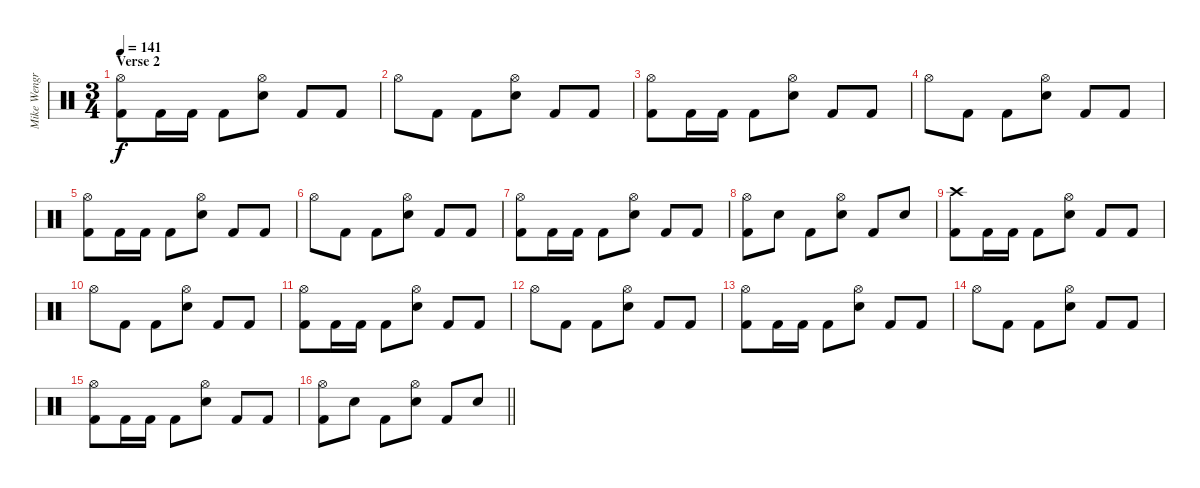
\track ("Mike Wengren (Drums)" "Mike Wengr") {instrument percussion}
\staff {score}
\articulation defaults
\ts (3 4)
\section ("" "Verse 2")
\tempo 141
\clef neutral
\ks c
("Hi-Hat (open)" "Kick (hit) 2").8{dy f} "Kick (hit) 2".16 "Kick (hit) 2".16 "Kick (hit) 2".8 ("Hi-Hat (open)" "Electric Snare (hit)").8 "Kick (hit) 2".8 "Kick (hit) 2".8 |
"Hi-Hat (open)".8 "Kick (hit) 2".8 "Kick (hit) 2".8 ("Hi-Hat (open)" "Electric Snare (hit)").8 "Kick (hit) 2".8 "Kick (hit) 2".8 |
("Hi-Hat (open)" "Kick (hit) 2").8 "Kick (hit) 2".16 "Kick (hit) 2".16 "Kick (hit) 2".8 ("Hi-Hat (open)" "Electric Snare (hit)").8 "Kick (hit) 2".8 "Kick (hit) 2".8 |
"Hi-Hat (open)".8 "Kick (hit) 2".8 "Kick (hit) 2".8 ("Hi-Hat (open)" "Electric Snare (hit)").8 "Kick (hit) 2".8 "Kick (hit) 2".8 |
("Hi-Hat (open)" "Kick (hit) 2").8 "Kick (hit) 2".16 "Kick (hit) 2".16 "Kick (hit) 2".8 ("Hi-Hat (open)" "Electric Snare (hit)").8 "Kick (hit) 2".8 "Kick (hit) 2".8 |
"Hi-Hat (open)".8 "Kick (hit) 2".8 "Kick (hit) 2".8 ("Hi-Hat (open)" "Electric Snare (hit)").8 "Kick (hit) 2".8 "Kick (hit) 2".8 |
("Hi-Hat (open)" "Kick (hit) 2").8 "Kick (hit) 2".16 "Kick (hit) 2".16 "Kick (hit) 2".8 ("Hi-Hat (open)" "Electric Snare (hit)").8 "Kick (hit) 2".8 "Kick (hit) 2".8 |
("Hi-Hat (open)" "Kick (hit) 2").8 "Electric Snare (hit)".8 "Kick (hit) 2".8 ("Hi-Hat (open)" "Electric Snare (hit)").8 "Kick (hit) 2".8 "Electric Snare (hit)".8 |
("Crash high (hit)" "Kick (hit) 2").8 "Kick (hit) 2".16 "Kick (hit) 2".16 "Kick (hit) 2".8 ("Hi-Hat (open)" "Electric Snare (hit)").8 "Kick (hit) 2".8 "Kick (hit) 2".8 |
"Hi-Hat (open)".8 "Kick (hit) 2".8 "Kick (hit) 2".8 ("Hi-Hat (open)" "Electric Snare (hit)").8 "Kick (hit) 2".8 "Kick (hit) 2".8 |
("Hi-Hat (open)" "Kick (hit) 2").8 "Kick (hit) 2".16 "Kick (hit) 2".16 "Kick (hit) 2".8 ("Hi-Hat (open)" "Electric Snare (hit)").8 "Kick (hit) 2".8 "Kick (hit) 2".8 |
"Hi-Hat (open)".8 "Kick (hit) 2".8 "Kick (hit) 2".8 ("Hi-Hat (open)" "Electric Snare (hit)").8 "Kick (hit) 2".8 "Kick (hit) 2".8 |
("Hi-Hat (open)" "Kick (hit) 2").8 "Kick (hit) 2".16 "Kick (hit) 2".16 "Kick (hit) 2".8 ("Hi-Hat (open)" "Electric Snare (hit)").8 "Kick (hit) 2".8 "Kick (hit) 2".8 |
"Hi-Hat (open)".8 "Kick (hit) 2".8 "Kick (hit) 2".8 ("Hi-Hat (open)" "Electric Snare (hit)").8 "Kick (hit) 2".8 "Kick (hit) 2".8 |
("Hi-Hat (open)" "Kick (hit) 2").8 "Kick (hit) 2".16 "Kick (hit) 2".16 "Kick (hit) 2".8 ("Hi-Hat (open)" "Electric Snare (hit)").8 "Kick (hit) 2".8 "Kick (hit) 2".8 |
\barLineRight lightlight
("Hi-Hat (open)" "Kick (hit) 2").8 "Electric Snare (hit)".8 "Kick (hit) 2".8 ("Hi-Hat (open)" "Electric Snare (hit)").8 "Kick (hit) 2".8 "Electric Snare (hit)".8
